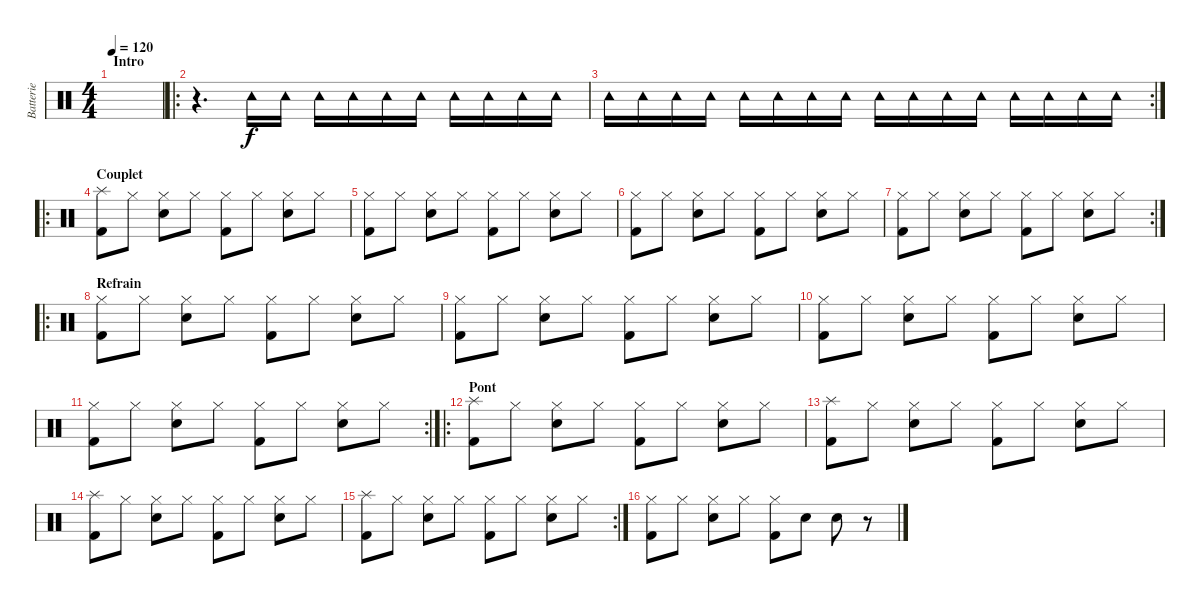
\track ("Batterie" "Batterie") {instrument percussion}
\staff {score}
\articulation defaults
\ts (4 4)
\section ("" "Intro")
\tempo 120
\clef neutral
\ks c
|
\ro
r.4{d} "Tambourine (hit)".16 "Tambourine (hit)".16 "Tambourine (hit)".16 "Tambourine (hit)".16 "Tambourine (hit)".16 "Tambourine (hit)".16 "Tambourine (hit)".16 "Tambourine (hit)".16 "Tambourine (hit)".16 "Tambourine (hit)".16 |
\rc 2 "Tambourine (hit)".16 "Tambourine (hit)".16 "Tambourine (hit)".16 "Tambourine (hit)".16 "Tambourine (hit)".16 "Tambourine (hit)".16 "Tambourine (hit)".16 "Tambourine (hit)".16 "Tambourine (hit)".16 "Tambourine (hit)".16 "Tambourine (hit)".16 "Tambourine (hit)".16 "Tambourine (hit)".16 "Tambourine (hit)".16 "Tambourine (hit)".16 "Tambourine (hit)".16
|
\ro
\section ("" "Couplet")
("Kick (hit) 2" "Splash (hit)").8 "Hi-Hat (closed)".8 ("Electric Snare (hit)" "Hi-Hat (closed)").8 "Hi-Hat (closed)".8 ("Kick (hit) 2" "Hi-Hat (closed)").8 "Hi-Hat (closed)".8 ("Electric Snare (hit)" "Hi-Hat (closed)").8 "Hi-Hat (closed)".8 |
("Kick (hit) 2" "Hi-Hat (closed)").8 "Hi-Hat (closed)".8 ("Electric Snare (hit)" "Hi-Hat (closed)").8 "Hi-Hat (closed)".8 ("Kick (hit) 2" "Hi-Hat (closed)").8 "Hi-Hat (closed)".8 ("Electric Snare (hit)" "Hi-Hat (closed)").8 "Hi-Hat (closed)".8 |
("Kick (hit) 2" "Hi-Hat (closed)").8 "Hi-Hat (closed)".8 ("Electric Snare (hit)" "Hi-Hat (closed)").8 "Hi-Hat (closed)".8 ("Kick (hit) 2" "Hi-Hat (closed)").8 "Hi-Hat (closed)".8 ("Electric Snare (hit)" "Hi-Hat (closed)").8 "Hi-Hat (closed)".8 |
\rc 2
("Kick (hit) 2" "Hi-Hat (closed)").8 "Hi-Hat (closed)".8 ("Electric Snare (hit)" "Hi-Hat (closed)").8 "Hi-Hat (closed)".8 ("Kick (hit) 2" "Hi-Hat (closed)").8 "Hi-Hat (closed)".8 ("Electric Snare (hit)" "Hi-Hat (closed)").8 "Hi-Hat (closed)".8 |
\ro
\section ("" "Refrain")
("Kick (hit) 2" "Hi-Hat (closed)").8 "Hi-Hat (closed)".8 ("Electric Snare (hit)" "Hi-Hat (closed)").8 "Hi-Hat (closed)".8 ("Kick (hit) 2" "Hi-Hat (closed)").8 "Hi-Hat (closed)".8 ("Electric Snare (hit)" "Hi-Hat (closed)").8 "Hi-Hat (closed)".8 |
("Kick (hit) 2" "Hi-Hat (closed)").8 "Hi-Hat (closed)".8 ("Electric Snare (hit)" "Hi-Hat (closed)").8 "Hi-Hat (closed)".8 ("Kick (hit) 2" "Hi-Hat (closed)").8 "Hi-Hat (closed)".8 ("Electric Snare (hit)" "Hi-Hat (closed)").8 "Hi-Hat (closed)".8 |
("Kick (hit) 2" "Hi-Hat (closed)").8 "Hi-Hat (closed)".8 ("Electric Snare (hit)" "Hi-Hat (closed)").8 "Hi-Hat (closed)".8 ("Kick (hit) 2" "Hi-Hat (closed)").8 "Hi-Hat (closed)".8 ("Electric Snare (hit)" "Hi-Hat (closed)").8 "Hi-Hat (closed)".8 |
\rc 2
("Kick (hit) 2" "Hi-Hat (closed)").8 "Hi-Hat (closed)".8 ("Electric Snare (hit)" "Hi-Hat (closed)").8 "Hi-Hat (closed)".8 ("Kick (hit) 2" "Hi-Hat (closed)").8 "Hi-Hat (closed)".8 ("Electric Snare (hit)" "Hi-Hat (closed)").8 "Hi-Hat (closed)".8 |
\ro
\section ("" "Pont")
("Kick (hit) 2" "Splash (hit)").8 "Hi-Hat (closed)".8 ("Electric Snare (hit)" "Hi-Hat (closed)").8 "Hi-Hat (closed)".8 ("Kick (hit) 2" "Hi-Hat (closed)").8 "Hi-Hat (closed)".8 ("Electric Snare (hit)" "Hi-Hat (closed)").8 "Hi-Hat (closed)".8 |
("Kick (hit) 2" "Splash (hit)").8 "Hi-Hat (closed)".8 ("Electric Snare (hit)" "Hi-Hat (closed)").8 "Hi-Hat (closed)".8 ("Kick (hit) 2" "Hi-Hat (closed)").8 "Hi-Hat (closed)".8 ("Electric Snare (hit)" "Hi-Hat (closed)").8 "Hi-Hat (closed)".8 |
("Kick (hit) 2" "Splash (hit)").8 "Hi-Hat (closed)".8 ("Electric Snare (hit)" "Hi-Hat (closed)").8 "Hi-Hat (closed)".8 ("Kick (hit) 2" "Hi-Hat (closed)").8 "Hi-Hat (closed)".8 ("Electric Snare (hit)" "Hi-Hat (closed)").8 "Hi-Hat (closed)".8 |
\rc 2
("Kick (hit) 2" "Splash (hit)").8 "Hi-Hat (closed)".8 ("Electric Snare (hit)" "Hi-Hat (closed)").8 "Hi-Hat (closed)".8 ("Kick (hit) 2" "Hi-Hat (closed)").8 "Hi-Hat (closed)".8 ("Electric Snare (hit)" "Hi-Hat (closed)").8 "Hi-Hat (closed)".8 |
("Kick (hit) 2" "Hi-Hat (closed)").8 "Hi-Hat (closed)".8 ("Electric Snare (hit)" "Hi-Hat (closed)").8 "Hi-Hat (closed)".8 ("Kick (hit) 2" "Hi-Hat (closed)").8 "Electric Snare (hit)".8 "Electric Snare (hit)".8 r.8
